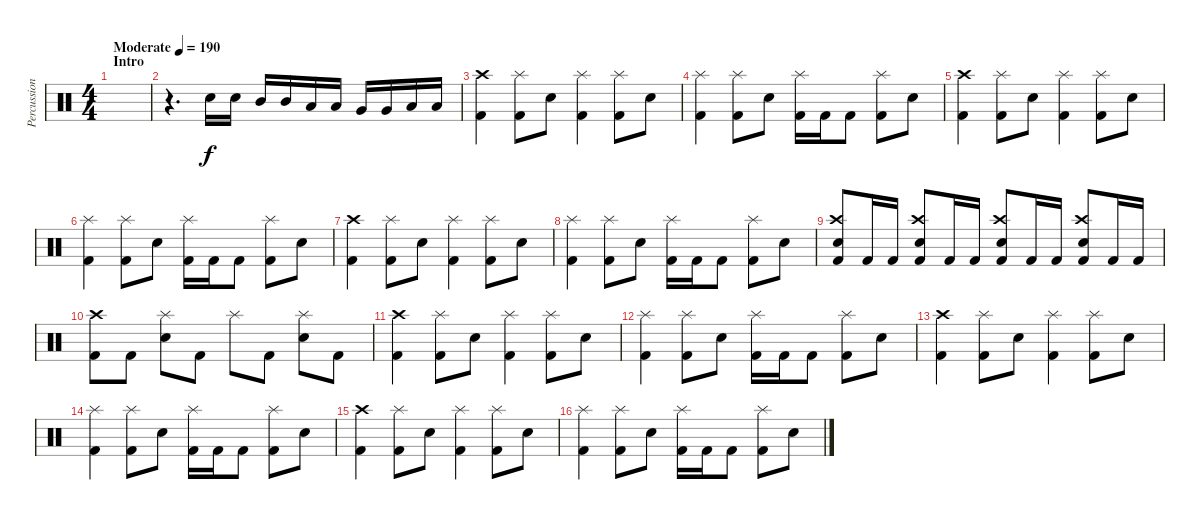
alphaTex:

\track ("Percussion" "Percussion") {instrument percussion}
\staff {score}
\articulation defaults
\ts (4 4)
\section ("" "Intro")
\tempo (190 "Moderate")
\clef neutral
\ks c
|
r.4{d} "Snare (hit) 2".16 "Snare (hit) 2".16 "Mid Tom (hit)".16 "Mid Tom (hit)".16 "Low Tom (hit)".16 "Low Tom (hit)".16 "Very Low Tom (hit)".16 "Very Low Tom (hit)".16 "Low Floor Tom (hit)".16 "Low Floor Tom (hit)".16 |
("Crash high (hit)" "Kick (hit) 2").4 ("Splash (hit)" "Kick (hit) 2").8 "Snare (hit) 2".8 ("Splash (hit)" "Kick (hit) 2").4 ("Splash (hit)" "Kick (hit) 2").8 "Snare (hit) 2".8 |
("Splash (hit)" "Kick (hit) 2").4 ("Splash (hit)" "Kick (hit) 2").8 "Snare (hit) 2".8 ("Splash (hit)" "Kick (hit) 2").16 "Kick (hit) 2".16 "Kick (hit) 2".8 ("Splash (hit)" "Kick (hit) 2").8 "Snare (hit) 2".8 |
("Crash high (hit)" "Kick (hit) 2").4 ("Splash (hit)" "Kick (hit) 2").8 "Snare (hit) 2".8 ("Splash (hit)" "Kick (hit) 2").4 ("Splash (hit)" "Kick (hit) 2").8 "Snare (hit) 2".8 |
("Splash (hit)" "Kick (hit) 2").4 ("Splash (hit)" "Kick (hit) 2").8 "Snare (hit) 2".8 ("Splash (hit)" "Kick (hit) 2").16 "Kick (hit) 2".16 "Kick (hit) 2".8 ("Splash (hit)" "Kick (hit) 2").8 "Snare (hit) 2".8 |
("Crash high (hit)" "Kick (hit) 2").4 ("Splash (hit)" "Kick (hit) 2").8 "Snare (hit) 2".8 ("Splash (hit)" "Kick (hit) 2").4 ("Splash (hit)" "Kick (hit) 2").8 "Snare (hit) 2".8 |
("Splash (hit)" "Kick (hit) 2").4 ("Splash (hit)" "Kick (hit) 2").8 "Snare (hit) 2".8 ("Splash (hit)" "Kick (hit) 2").16 "Kick (hit) 2".16 "Kick (hit) 2".8 ("Splash (hit)" "Kick (hit) 2").8 "Snare (hit) 2".8 |
("Crash high (hit)" "Snare (hit) 2" "Kick (hit) 2").8 "Kick (hit) 2".16 "Kick (hit) 2".16 ("Crash high (hit)" "Snare (hit) 2" "Kick (hit) 2").8 "Kick (hit) 2".16 "Kick (hit) 2".16 ("Crash high (hit)" "Snare (hit) 2" "Kick (hit) 2").8 "Kick (hit) 2".16 "Kick (hit) 2".16 ("Crash high (hit)" "Snare (hit) 2" "Kick (hit) 2").8 "Kick (hit) 2".16 "Kick (hit) 2".16 |
("Crash high (hit)" "Kick (hit) 2").8 "Kick (hit) 2".8 ("Splash (hit)" "Snare (hit) 2").8 "Kick (hit) 2".8 "Splash (hit)".8 "Kick (hit) 2".8 ("Splash (hit)" "Snare (hit) 2").8 "Kick (hit) 2".8 |
("Crash high (hit)" "Kick (hit) 2").4 ("Splash (hit)" "Kick (hit) 2").8 "Snare (hit) 2".8 ("Splash (hit)" "Kick (hit) 2").4 ("Splash (hit)" "Kick (hit) 2").8 "Snare (hit) 2".8 |
("Splash (hit)" "Kick (hit) 2").4 ("Splash (hit)" "Kick (hit) 2").8 "Snare (hit) 2".8 ("Splash (hit)" "Kick (hit) 2").16 "Kick (hit) 2".16 "Kick (hit) 2".8 ("Splash (hit)" "Kick (hit) 2").8 "Snare (hit) 2".8 |
("Crash high (hit)" "Kick (hit) 2").4 ("Splash (hit)" "Kick (hit) 2").8 "Snare (hit) 2".8 ("Splash (hit)" "Kick (hit) 2").4 ("Splash (hit)" "Kick (hit) 2").8 "Snare (hit) 2".8 |
("Splash (hit)" "Kick (hit) 2").4 ("Splash (hit)" "Kick (hit) 2").8 "Snare (hit) 2".8 ("Splash (hit)" "Kick (hit) 2").16 "Kick (hit) 2".16 "Kick (hit) 2".8 ("Splash (hit)" "Kick (hit) 2").8 "Snare (hit) 2".8 |
("Crash high (hit)" "Kick (hit) 2").4 ("Splash (hit)" "Kick (hit) 2").8 "Snare (hit) 2".8 ("Splash (hit)" "Kick (hit) 2").4 ("Splash (hit)" "Kick (hit) 2").8 "Snare (hit) 2".8 |
("Splash (hit)" "Kick (hit) 2").4 ("Splash (hit)" "Kick (hit) 2").8 "Snare (hit) 2".8 ("Splash (hit)" "Kick (hit) 2").16 "Kick (hit) 2".16 "Kick (hit) 2".8 ("Splash (hit)" "Kick (hit) 2").8 "Snare (hit) 2".8
